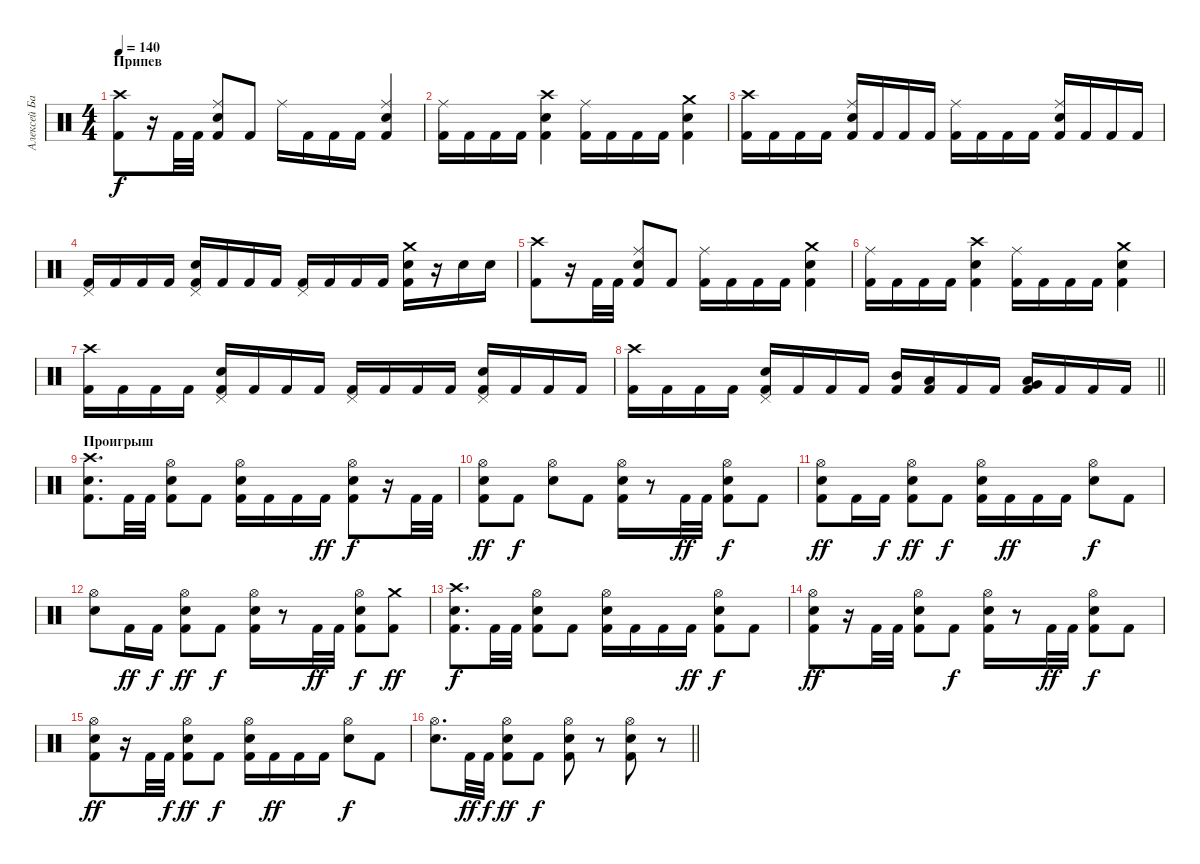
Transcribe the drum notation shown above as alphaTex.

\track ("Алексей Барзилович" "Алексей Ба") {instrument percussion}
\staff {score}
\articulation defaults
\ts (4 4)
\section ("" "Припев")
\tempo 140
\clef neutral
\ks c
("Crash high (hit)" "Kick (hit) 2").8{dy f} r.16 "Kick (hit) 2".32 "Kick (hit) 2".32 ("Ride (middle)" "Electric Snare (hit)" "Kick (hit) 2").8 "Kick (hit) 2".8 "Ride (middle)".16 "Kick (hit) 2".16 "Kick (hit) 2".16 "Kick (hit) 2".16 ("Ride (middle)" "Electric Snare (hit)" "Kick (hit) 2").4 |
("Ride (middle)" "Kick (hit) 2").16 "Kick (hit) 2".16 "Kick (hit) 2".16 "Kick (hit) 2".16 ("Crash high (hit)" "Electric Snare (hit)" "Kick (hit) 2").4 ("Ride (middle)" "Kick (hit) 2").16 "Kick (hit) 2".16 "Kick (hit) 2".16 "Kick (hit) 2".16 ("Crash medium (hit)" "Electric Snare (hit)" "Kick (hit) 2").4 |
("Crash high (hit)" "Kick (hit) 2").16 "Kick (hit) 2".16 "Kick (hit) 2".16 "Kick (hit) 2".16 ("Ride (middle)" "Electric Snare (hit)" "Kick (hit) 2").16 "Kick (hit) 2".16 "Kick (hit) 2".16 "Kick (hit) 2".16 ("Ride (middle)" "Kick (hit) 2").16 "Kick (hit) 2".16 "Kick (hit) 2".16 "Kick (hit) 2".16 ("Ride (middle)" "Electric Snare (hit)" "Kick (hit) 2").16 "Kick (hit) 2".16 "Kick (hit) 2".16 "Kick (hit) 2".16 |
("Pedal Hi-Hat (hit)" "Kick (hit) 2").16 "Kick (hit) 2".16 "Kick (hit) 2".16 "Kick (hit) 2".16 ("Pedal Hi-Hat (hit)" "Electric Snare (hit)" "Kick (hit) 2").16 "Kick (hit) 2".16 "Kick (hit) 2".16 "Kick (hit) 2".16 ("Pedal Hi-Hat (hit)" "Kick (hit) 2").16 "Kick (hit) 2".16 "Kick (hit) 2".16 "Kick (hit) 2".16 ("Crash medium (hit)" "Electric Snare (hit)" "Kick (hit) 2").16 r.16 "Electric Snare (hit)".16 "Electric Snare (hit)".16 |
("Crash high (hit)" "Kick (hit) 2").8 r.16 "Kick (hit) 2".32 "Kick (hit) 2".32 ("Ride (middle)" "Electric Snare (hit)" "Kick (hit) 2").8 "Kick (hit) 2".8 ("Ride (middle)" "Kick (hit) 2").16 "Kick (hit) 2".16 "Kick (hit) 2".16 "Kick (hit) 2".16 ("Crash medium (hit)" "Electric Snare (hit)" "Kick (hit) 2").4 |
("Ride (middle)" "Kick (hit) 2").16 "Kick (hit) 2".16 "Kick (hit) 2".16 "Kick (hit) 2".16 ("Crash high (hit)" "Electric Snare (hit)" "Kick (hit) 2").4 ("Ride (middle)" "Kick (hit) 2").16 "Kick (hit) 2".16 "Kick (hit) 2".16 "Kick (hit) 2".16 ("Crash medium (hit)" "Electric Snare (hit)" "Kick (hit) 2").4 |
("Crash high (hit)" "Kick (hit) 2").16 "Kick (hit) 2".16 "Kick (hit) 2".16 "Kick (hit) 2".16 ("Pedal Hi-Hat (hit)" "Electric Snare (hit)" "Kick (hit) 2").16 "Kick (hit) 2".16 "Kick (hit) 2".16 "Kick (hit) 2".16 ("Pedal Hi-Hat (hit)" "Kick (hit) 2").16 "Kick (hit) 2".16 "Kick (hit) 2".16 "Kick (hit) 2".16 ("Pedal Hi-Hat (hit)" "Electric Snare (hit)" "Kick (hit) 2").16 "Kick (hit) 2".16 "Kick (hit) 2".16 "Kick (hit) 2".16 |
\barLineRight lightlight
("Crash high (hit)" "Kick (hit) 2").16 "Kick (hit) 2".16 "Kick (hit) 2".16 "Kick (hit) 2".16 ("Pedal Hi-Hat (hit)" "Electric Snare (hit)" "Kick (hit) 2").16 "Kick (hit) 2".16 "Kick (hit) 2".16 "Kick (hit) 2".16 ("Mid Tom (hit)" "Kick (hit) 2").16 ("Low Tom (hit)" "Kick (hit) 2").16 "Kick (hit) 2".16 "Kick (hit) 2".16 ("Very Low Tom (hit)" "Low Floor Tom (hit)" "Kick (hit) 2").16 "Kick (hit) 2".16 "Kick (hit) 2".16 "Kick (hit) 2".16 |
\section ("" "Проигрыш")
("Crash high (hit)" "Electric Snare (hit)" "Kick (hit) 2").8{d} "Kick (hit) 2".32 "Kick (hit) 2".32 ("Hi-Hat (open)" "Electric Snare (hit)" "Kick (hit) 2").8 "Kick (hit) 2".8 ("Hi-Hat (open)" "Electric Snare (hit)" "Kick (hit) 2").16 "Kick (hit) 2".16 "Kick (hit) 2".16 "Kick (hit) 2".16{dy ff} ("Hi-Hat (open)" "Electric Snare (hit)" "Kick (hit) 2").8{dy f} r.16 "Kick (hit) 2".32 "Kick (hit) 2".32 |
("Hi-Hat (open)" "Electric Snare (hit)" "Kick (hit) 2").8{dy ff} "Kick (hit) 2".8{dy f} ("Hi-Hat (open)" "Electric Snare (hit)").8 "Kick (hit) 2".8 ("Hi-Hat (open)" "Electric Snare (hit)" "Kick (hit) 2").16 r.8 "Kick (hit) 2".32{dy ff} "Kick (hit) 2".32 ("Hi-Hat (open)" "Electric Snare (hit)" "Kick (hit) 2").8{dy f} "Kick (hit) 2".8 |
("Hi-Hat (open)" "Electric Snare (hit)" "Kick (hit) 2").8{dy ff} "Kick (hit) 2".16 "Kick (hit) 2".16{dy f} ("Hi-Hat (open)" "Electric Snare (hit)" "Kick (hit) 2").8{dy ff} "Kick (hit) 2".8{dy f} ("Hi-Hat (open)" "Electric Snare (hit)" "Kick (hit) 2").16 "Kick (hit) 2".16{dy ff} "Kick (hit) 2".16 "Kick (hit) 2".16 ("Hi-Hat (open)" "Electric Snare (hit)").8{dy f} "Kick (hit) 2".8 |
("Hi-Hat (open)" "Electric Snare (hit)").8 "Kick (hit) 2".16{dy ff} "Kick (hit) 2".16{dy f} ("Hi-Hat (open)" "Electric Snare (hit)" "Kick (hit) 2").8{dy ff} "Kick (hit) 2".8{dy f} ("Hi-Hat (open)" "Electric Snare (hit)" "Kick (hit) 2").16 r.8 "Kick (hit) 2".32{dy ff} "Kick (hit) 2".32 ("Hi-Hat (open)" "Electric Snare (hit)" "Kick (hit) 2").8{dy f} ("Crash medium (hit)" "Kick (hit) 2").8{dy ff} |
("Crash high (hit)" "Electric Snare (hit)" "Kick (hit) 2").8{d dy f} "Kick (hit) 2".32 "Kick (hit) 2".32 ("Hi-Hat (open)" "Electric Snare (hit)" "Kick (hit) 2").8 "Kick (hit) 2".8 ("Hi-Hat (open)" "Electric Snare (hit)" "Kick (hit) 2").16 "Kick (hit) 2".16 "Kick (hit) 2".16 "Kick (hit) 2".16{dy ff} ("Hi-Hat (open)" "Electric Snare (hit)" "Kick (hit) 2").8{dy f} "Kick (hit) 2".8 |
("Hi-Hat (open)" "Electric Snare (hit)" "Kick (hit) 2").8{dy ff} r.16 "Kick (hit) 2".32 "Kick (hit) 2".32 ("Hi-Hat (open)" "Electric Snare (hit)" "Kick (hit) 2").8 "Kick (hit) 2".8{dy f} ("Hi-Hat (open)" "Electric Snare (hit)" "Kick (hit) 2").16 r.8 "Kick (hit) 2".32{dy ff} "Kick (hit) 2".32 ("Hi-Hat (open)" "Electric Snare (hit)" "Kick (hit) 2").8{dy f} "Kick (hit) 2".8 |
("Hi-Hat (open)" "Electric Snare (hit)" "Kick (hit) 2").8{dy ff} r.16 "Kick (hit) 2".32 "Kick (hit) 2".32{dy f} ("Hi-Hat (open)" "Electric Snare (hit)" "Kick (hit) 2").8{dy ff} "Kick (hit) 2".8{dy f} ("Hi-Hat (open)" "Electric Snare (hit)" "Kick (hit) 2").16 "Kick (hit) 2".16{dy ff} "Kick (hit) 2".16 "Kick (hit) 2".16 ("Hi-Hat (open)" "Electric Snare (hit)").8{dy f} "Kick (hit) 2".8 |
\barLineRight lightlight
("Hi-Hat (open)" "Electric Snare (hit)").8{d} "Kick (hit) 2".32{dy ff} "Kick (hit) 2".32{dy f} ("Hi-Hat (open)" "Electric Snare (hit)" "Kick (hit) 2").8{dy ff} "Kick (hit) 2".8{dy f} ("Hi-Hat (open)" "Electric Snare (hit)" "Kick (hit) 2").8 r.8 ("Hi-Hat (open)" "Electric Snare (hit)" "Kick (hit) 2").8 r.8
